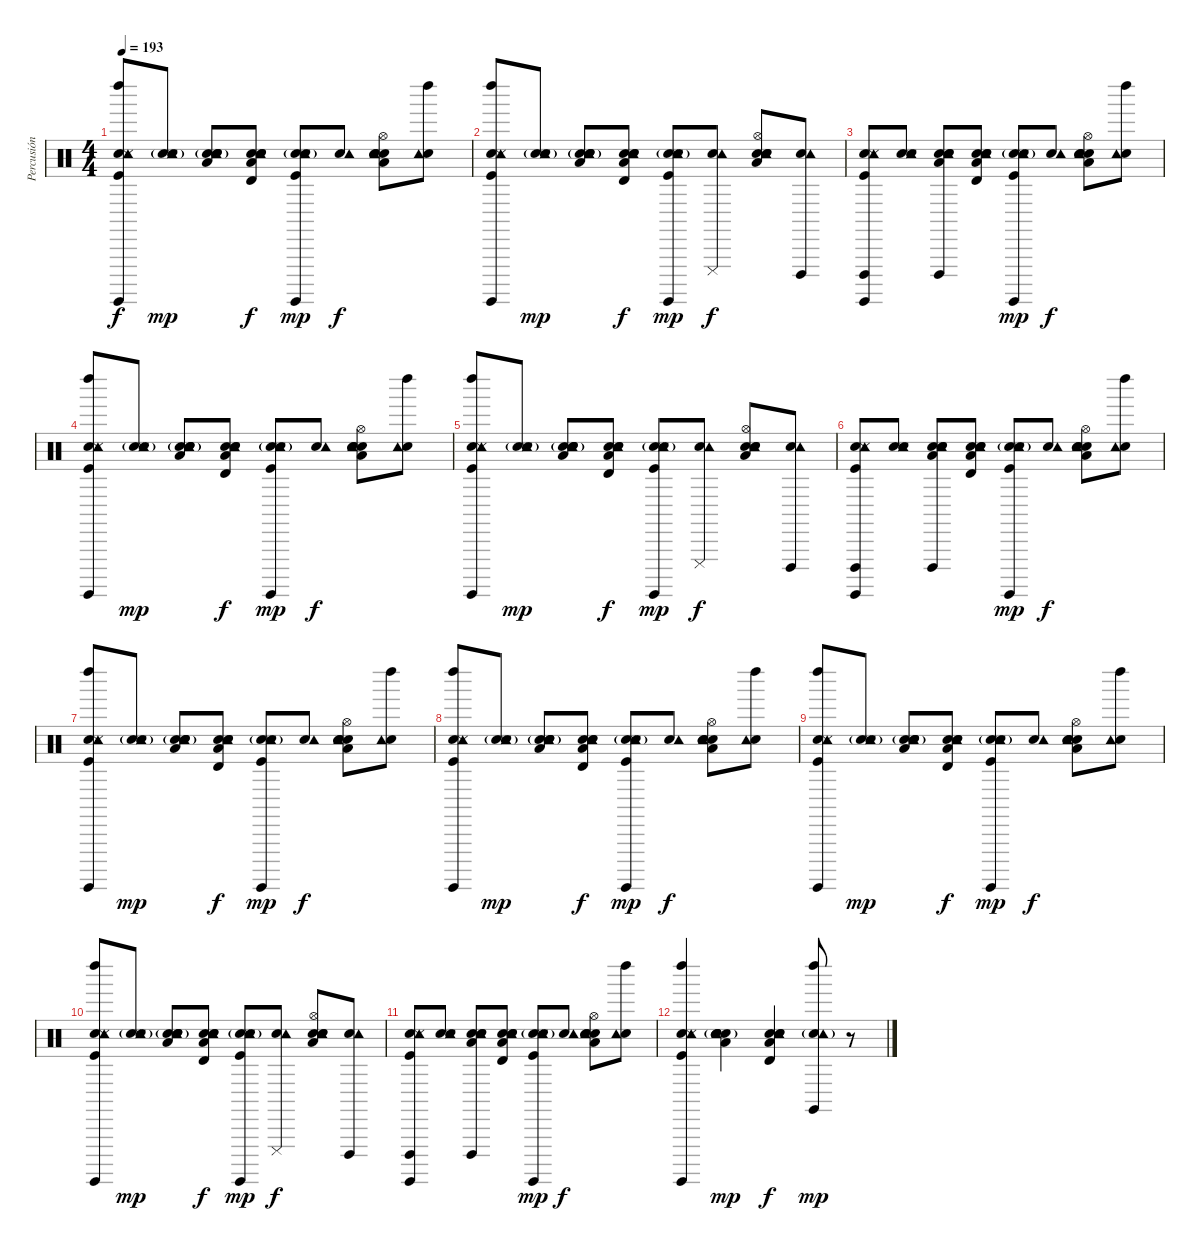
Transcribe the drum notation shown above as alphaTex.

\track ("Percusión" "Percusión") {instrument percussion}
\staff {score}
\articulation defaults
\ts (4 4)
\tempo 193
\clef neutral
\ks c
("Hand Clap (hit)" "Tambourine (hit)" "Left Maraca (hit)" "Metronome (hit)" "Surdo (hit)" "Kick (hit)").8{dy f} ("Hand Clap (hit)" "Tambourine (hit)" "Hand Clap (hit)"{g} "Metronome (hit)").8{dy mp} ("Hand Clap (hit)" "Tambourine (hit)" "Hand Clap (hit)"{g} "Snare (hit) 2" "Low Tom (hit)" "Electric Snare (hit)").8 ("Hand Clap (hit)" "Tambourine (hit)" "Timbale high (hit)" "Snare (hit) 2" "Low Tom (hit)" "Electric Snare (hit)").8{dy f} ("Hand Clap (hit)" "Tambourine (hit)" "Hand Clap (hit)"{g} "Metronome (hit)" "Surdo (hit)" "Kick (hit)").8{dy mp} ("Hand Clap (hit)" "Tambourine (hit)").8{dy f} ("Hand Clap (hit)" "Tambourine (hit)" "Hi-Hat (open)" "Snare (hit) 2" "Low Tom (hit)" "Electric Snare (hit)").8 ("Hand Clap (hit)" "Tambourine (hit)" "Left Maraca (hit)").8 |
("Hand Clap (hit)" "Tambourine (hit)" "Left Maraca (hit)" "Metronome (hit)" "Surdo (hit)" "Kick (hit)").8 ("Hand Clap (hit)" "Tambourine (hit)" "Hand Clap (hit)"{g} "Metronome (hit)").8{dy mp} ("Hand Clap (hit)" "Tambourine (hit)" "Hand Clap (hit)"{g} "Snare (hit) 2" "Low Tom (hit)" "Electric Snare (hit)").8 ("Hand Clap (hit)" "Tambourine (hit)" "Timbale high (hit)" "Snare (hit) 2" "Low Tom (hit)" "Electric Snare (hit)").8{dy f} ("Hand Clap (hit)" "Tambourine (hit)" "Hand Clap (hit)"{g} "Metronome (hit)" "Surdo (hit)" "Kick (hit)").8{dy mp} ("Hand Clap (hit)" "Tambourine (hit)" "Cuica (mute)").8{dy f} ("Hand Clap (hit)" "Tambourine (hit)" "Hi-Hat (open)" "Snare (hit) 2" "Low Tom (hit)" "Electric Snare (hit)").8 ("Hand Clap (hit)" "Tambourine (hit)" "Cuica (open)").8 |
("Hand Clap (hit)" "Tambourine (hit)" "Cuica (open)" "Metronome (hit)" "Surdo (hit)" "Kick (hit)").8 ("Hand Clap (hit)" "Tambourine (hit)" "Hand Clap (hit)" "Metronome (hit)").8 ("Hand Clap (hit)" "Tambourine (hit)" "Cuica (open)" "Snare (hit) 2" "Low Tom (hit)" "Electric Snare (hit)").8 ("Hand Clap (hit)" "Tambourine (hit)" "Timbale high (hit)" "Snare (hit) 2" "Low Tom (hit)" "Electric Snare (hit)").8 ("Hand Clap (hit)" "Tambourine (hit)" "Hand Clap (hit)"{g} "Metronome (hit)" "Surdo (hit)" "Kick (hit)").8{dy mp} ("Hand Clap (hit)" "Tambourine (hit)").8{dy f} ("Hand Clap (hit)" "Tambourine (hit)" "Hi-Hat (open)" "Snare (hit) 2" "Low Tom (hit)" "Electric Snare (hit)").8 ("Hand Clap (hit)" "Tambourine (hit)" "Left Maraca (hit)").8 |
("Hand Clap (hit)" "Tambourine (hit)" "Left Maraca (hit)" "Metronome (hit)" "Surdo (hit)" "Kick (hit)").8 ("Hand Clap (hit)" "Tambourine (hit)" "Hand Clap (hit)"{g} "Metronome (hit)").8{dy mp} ("Hand Clap (hit)" "Tambourine (hit)" "Hand Clap (hit)"{g} "Snare (hit) 2" "Low Tom (hit)" "Electric Snare (hit)").8 ("Hand Clap (hit)" "Tambourine (hit)" "Timbale high (hit)" "Snare (hit) 2" "Low Tom (hit)" "Electric Snare (hit)").8{dy f} ("Hand Clap (hit)" "Tambourine (hit)" "Hand Clap (hit)"{g} "Metronome (hit)" "Surdo (hit)" "Kick (hit)").8{dy mp} ("Hand Clap (hit)" "Tambourine (hit)").8{dy f} ("Hand Clap (hit)" "Tambourine (hit)" "Hi-Hat (open)" "Snare (hit) 2" "Low Tom (hit)" "Electric Snare (hit)").8 ("Hand Clap (hit)" "Tambourine (hit)" "Left Maraca (hit)").8 |
("Hand Clap (hit)" "Tambourine (hit)" "Left Maraca (hit)" "Metronome (hit)" "Surdo (hit)" "Kick (hit)").8 ("Hand Clap (hit)" "Tambourine (hit)" "Hand Clap (hit)"{g} "Metronome (hit)").8{dy mp} ("Hand Clap (hit)" "Tambourine (hit)" "Hand Clap (hit)"{g} "Snare (hit) 2" "Low Tom (hit)" "Electric Snare (hit)").8 ("Hand Clap (hit)" "Tambourine (hit)" "Timbale high (hit)" "Snare (hit) 2" "Low Tom (hit)" "Electric Snare (hit)").8{dy f} ("Hand Clap (hit)" "Tambourine (hit)" "Hand Clap (hit)"{g} "Metronome (hit)" "Surdo (hit)" "Kick (hit)").8{dy mp} ("Hand Clap (hit)" "Tambourine (hit)" "Cuica (mute)").8{dy f} ("Hand Clap (hit)" "Tambourine (hit)" "Hi-Hat (open)" "Snare (hit) 2" "Low Tom (hit)" "Electric Snare (hit)").8 ("Hand Clap (hit)" "Tambourine (hit)" "Cuica (open)").8 |
("Hand Clap (hit)" "Tambourine (hit)" "Cuica (open)" "Metronome (hit)" "Surdo (hit)" "Kick (hit)").8 ("Hand Clap (hit)" "Tambourine (hit)" "Hand Clap (hit)" "Metronome (hit)").8 ("Hand Clap (hit)" "Tambourine (hit)" "Cuica (open)" "Snare (hit) 2" "Low Tom (hit)" "Electric Snare (hit)").8 ("Hand Clap (hit)" "Tambourine (hit)" "Timbale high (hit)" "Snare (hit) 2" "Low Tom (hit)" "Electric Snare (hit)").8 ("Hand Clap (hit)" "Tambourine (hit)" "Hand Clap (hit)"{g} "Metronome (hit)" "Surdo (hit)" "Kick (hit)").8{dy mp} ("Hand Clap (hit)" "Tambourine (hit)").8{dy f} ("Hand Clap (hit)" "Tambourine (hit)" "Hi-Hat (open)" "Snare (hit) 2" "Low Tom (hit)" "Electric Snare (hit)").8 ("Hand Clap (hit)" "Tambourine (hit)" "Left Maraca (hit)").8 |
("Hand Clap (hit)" "Tambourine (hit)" "Left Maraca (hit)" "Metronome (hit)" "Surdo (hit)" "Kick (hit)").8 ("Hand Clap (hit)" "Tambourine (hit)" "Hand Clap (hit)"{g} "Metronome (hit)").8{dy mp} ("Hand Clap (hit)" "Tambourine (hit)" "Hand Clap (hit)"{g} "Snare (hit) 2" "Low Tom (hit)" "Electric Snare (hit)").8 ("Hand Clap (hit)" "Tambourine (hit)" "Timbale high (hit)" "Snare (hit) 2" "Low Tom (hit)" "Electric Snare (hit)").8{dy f} ("Hand Clap (hit)" "Tambourine (hit)" "Hand Clap (hit)"{g} "Metronome (hit)" "Surdo (hit)" "Kick (hit)").8{dy mp} ("Hand Clap (hit)" "Tambourine (hit)").8{dy f} ("Hand Clap (hit)" "Tambourine (hit)" "Hi-Hat (open)" "Snare (hit) 2" "Low Tom (hit)" "Electric Snare (hit)").8 ("Hand Clap (hit)" "Tambourine (hit)" "Left Maraca (hit)").8 |
("Hand Clap (hit)" "Tambourine (hit)" "Left Maraca (hit)" "Metronome (hit)" "Surdo (hit)" "Kick (hit)").8 ("Hand Clap (hit)" "Tambourine (hit)" "Hand Clap (hit)"{g} "Metronome (hit)").8{dy mp} ("Hand Clap (hit)" "Tambourine (hit)" "Hand Clap (hit)"{g} "Snare (hit) 2" "Low Tom (hit)" "Electric Snare (hit)").8 ("Hand Clap (hit)" "Tambourine (hit)" "Timbale high (hit)" "Snare (hit) 2" "Low Tom (hit)" "Electric Snare (hit)").8{dy f} ("Hand Clap (hit)" "Tambourine (hit)" "Hand Clap (hit)"{g} "Metronome (hit)" "Surdo (hit)" "Kick (hit)").8{dy mp} ("Hand Clap (hit)" "Tambourine (hit)").8{dy f} ("Hand Clap (hit)" "Tambourine (hit)" "Hi-Hat (open)" "Snare (hit) 2" "Low Tom (hit)" "Electric Snare (hit)").8 ("Hand Clap (hit)" "Tambourine (hit)" "Left Maraca (hit)").8 |
("Hand Clap (hit)" "Tambourine (hit)" "Left Maraca (hit)" "Metronome (hit)" "Surdo (hit)" "Kick (hit)").8 ("Hand Clap (hit)" "Tambourine (hit)" "Hand Clap (hit)"{g} "Metronome (hit)").8{dy mp} ("Hand Clap (hit)" "Tambourine (hit)" "Hand Clap (hit)"{g} "Snare (hit) 2" "Low Tom (hit)" "Electric Snare (hit)").8 ("Hand Clap (hit)" "Tambourine (hit)" "Timbale high (hit)" "Snare (hit) 2" "Low Tom (hit)" "Electric Snare (hit)").8{dy f} ("Hand Clap (hit)" "Tambourine (hit)" "Hand Clap (hit)"{g} "Metronome (hit)" "Surdo (hit)" "Kick (hit)").8{dy mp} ("Hand Clap (hit)" "Tambourine (hit)").8{dy f} ("Hand Clap (hit)" "Tambourine (hit)" "Hi-Hat (open)" "Snare (hit) 2" "Low Tom (hit)" "Electric Snare (hit)").8 ("Hand Clap (hit)" "Tambourine (hit)" "Left Maraca (hit)").8 |
("Hand Clap (hit)" "Tambourine (hit)" "Left Maraca (hit)" "Metronome (hit)" "Surdo (hit)" "Kick (hit)").8 ("Hand Clap (hit)" "Tambourine (hit)" "Hand Clap (hit)"{g} "Metronome (hit)").8{dy mp} ("Hand Clap (hit)" "Tambourine (hit)" "Hand Clap (hit)"{g} "Snare (hit) 2" "Low Tom (hit)" "Electric Snare (hit)").8 ("Hand Clap (hit)" "Tambourine (hit)" "Timbale high (hit)" "Snare (hit) 2" "Low Tom (hit)" "Electric Snare (hit)").8{dy f} ("Hand Clap (hit)" "Tambourine (hit)" "Hand Clap (hit)"{g} "Metronome (hit)" "Surdo (hit)" "Kick (hit)").8{dy mp} ("Hand Clap (hit)" "Tambourine (hit)" "Cuica (mute)").8{dy f} ("Hand Clap (hit)" "Tambourine (hit)" "Hi-Hat (open)" "Snare (hit) 2" "Low Tom (hit)" "Electric Snare (hit)").8 ("Hand Clap (hit)" "Tambourine (hit)" "Cuica (open)").8 |
("Hand Clap (hit)" "Tambourine (hit)" "Cuica (open)" "Metronome (hit)" "Surdo (hit)" "Kick (hit)").8 ("Hand Clap (hit)" "Tambourine (hit)" "Hand Clap (hit)" "Metronome (hit)").8 ("Hand Clap (hit)" "Tambourine (hit)" "Cuica (open)" "Snare (hit) 2" "Low Tom (hit)" "Electric Snare (hit)").8 ("Hand Clap (hit)" "Tambourine (hit)" "Timbale high (hit)" "Snare (hit) 2" "Low Tom (hit)" "Electric Snare (hit)").8 ("Hand Clap (hit)" "Tambourine (hit)" "Hand Clap (hit)"{g} "Metronome (hit)" "Surdo (hit)" "Kick (hit)").8{dy mp} ("Hand Clap (hit)" "Tambourine (hit)").8{dy f} ("Hand Clap (hit)" "Tambourine (hit)" "Hi-Hat (open)" "Snare (hit) 2" "Low Tom (hit)" "Electric Snare (hit)").8 ("Hand Clap (hit)" "Tambourine (hit)" "Left Maraca (hit)").8 |
("Hand Clap (hit)" "Tambourine (hit)" "Left Maraca (hit)" "Metronome (hit)" "Surdo (hit)" "Kick (hit)").4 ("Hand Clap (hit)" "Tambourine (hit)" "Hand Clap (hit)"{g} "Snare (hit) 2" "Low Tom (hit)" "Electric Snare (hit)").4{dy mp} ("Hand Clap (hit)" "Tambourine (hit)" "Timbale high (hit)" "Snare (hit) 2" "Low Tom (hit)" "Electric Snare (hit)").4{dy f} ("Hand Clap (hit)"{g} "Tambourine (hit)" "Left Maraca (hit)" "Claves (hit)").8{dy mp} r.8
